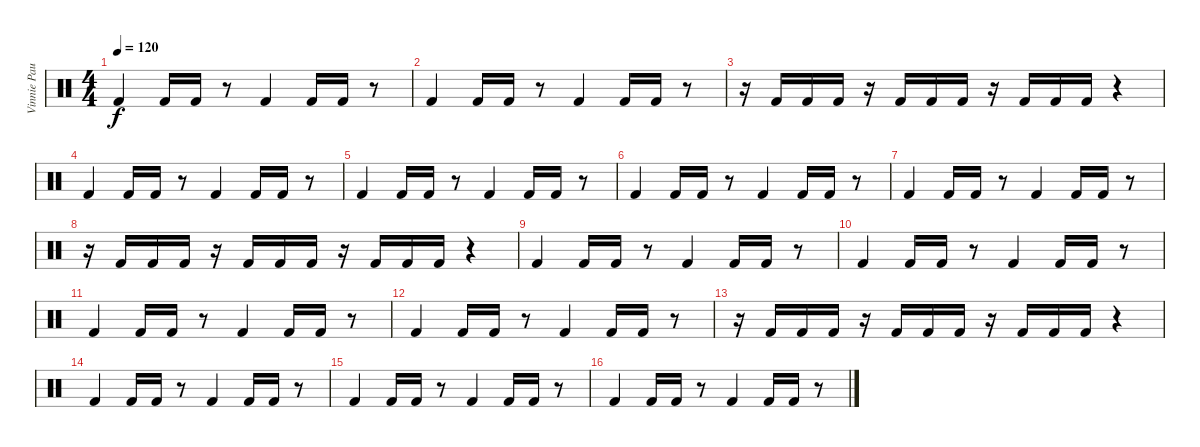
\track ("Vinnie Paul bass drum" "Vinnie Pau") {instrument percussion}
\staff {score}
\articulation defaults
\ts (4 4)
\tempo 120
\clef neutral
\ks c "Kick (hit) 2".4{dy f} "Kick (hit) 2".16 "Kick (hit) 2".16
r.8 "Kick (hit) 2".4 "Kick (hit) 2".16 "Kick (hit) 2".16 r.8 |
"Kick (hit) 2".4 "Kick (hit) 2".16 "Kick (hit) 2".16 r.8 "Kick (hit) 2".4 "Kick (hit) 2".16 "Kick (hit) 2".16 r.8 |
r.16 "Kick (hit) 2".16 "Kick (hit) 2".16 "Kick (hit) 2".16 r.16 "Kick (hit) 2".16 "Kick (hit) 2".16 "Kick (hit) 2".16 r.16 "Kick (hit) 2".16 "Kick (hit) 2".16 "Kick (hit) 2".16 r.4 |
"Kick (hit) 2".4 "Kick (hit) 2".16 "Kick (hit) 2".16 r.8 "Kick (hit) 2".4 "Kick (hit) 2".16 "Kick (hit) 2".16 r.8 |
"Kick (hit) 2".4 "Kick (hit) 2".16 "Kick (hit) 2".16 r.8 "Kick (hit) 2".4 "Kick (hit) 2".16 "Kick (hit) 2".16 r.8 |
"Kick (hit) 2".4 "Kick (hit) 2".16 "Kick (hit) 2".16 r.8 "Kick (hit) 2".4 "Kick (hit) 2".16 "Kick (hit) 2".16 r.8 |
"Kick (hit) 2".4 "Kick (hit) 2".16 "Kick (hit) 2".16 r.8 "Kick (hit) 2".4 "Kick (hit) 2".16 "Kick (hit) 2".16 r.8 |
r.16 "Kick (hit) 2".16 "Kick (hit) 2".16 "Kick (hit) 2".16 r.16 "Kick (hit) 2".16 "Kick (hit) 2".16 "Kick (hit) 2".16 r.16 "Kick (hit) 2".16 "Kick (hit) 2".16 "Kick (hit) 2".16 r.4 |
"Kick (hit) 2".4 "Kick (hit) 2".16 "Kick (hit) 2".16 r.8 "Kick (hit) 2".4 "Kick (hit) 2".16 "Kick (hit) 2".16 r.8 |
"Kick (hit) 2".4 "Kick (hit) 2".16 "Kick (hit) 2".16 r.8 "Kick (hit) 2".4 "Kick (hit) 2".16 "Kick (hit) 2".16 r.8 |
"Kick (hit) 2".4 "Kick (hit) 2".16 "Kick (hit) 2".16 r.8 "Kick (hit) 2".4 "Kick (hit) 2".16 "Kick (hit) 2".16 r.8 |
"Kick (hit) 2".4 "Kick (hit) 2".16 "Kick (hit) 2".16 r.8 "Kick (hit) 2".4 "Kick (hit) 2".16 "Kick (hit) 2".16 r.8 |
r.16 "Kick (hit) 2".16 "Kick (hit) 2".16 "Kick (hit) 2".16 r.16 "Kick (hit) 2".16 "Kick (hit) 2".16 "Kick (hit) 2".16 r.16 "Kick (hit) 2".16 "Kick (hit) 2".16 "Kick (hit) 2".16 r.4 |
"Kick (hit) 2".4 "Kick (hit) 2".16 "Kick (hit) 2".16 r.8 "Kick (hit) 2".4 "Kick (hit) 2".16 "Kick (hit) 2".16 r.8 |
"Kick (hit) 2".4 "Kick (hit) 2".16 "Kick (hit) 2".16 r.8 "Kick (hit) 2".4 "Kick (hit) 2".16 "Kick (hit) 2".16 r.8 |
"Kick (hit) 2".4 "Kick (hit) 2".16 "Kick (hit) 2".16 r.8 "Kick (hit) 2".4 "Kick (hit) 2".16 "Kick (hit) 2".16 r.8
